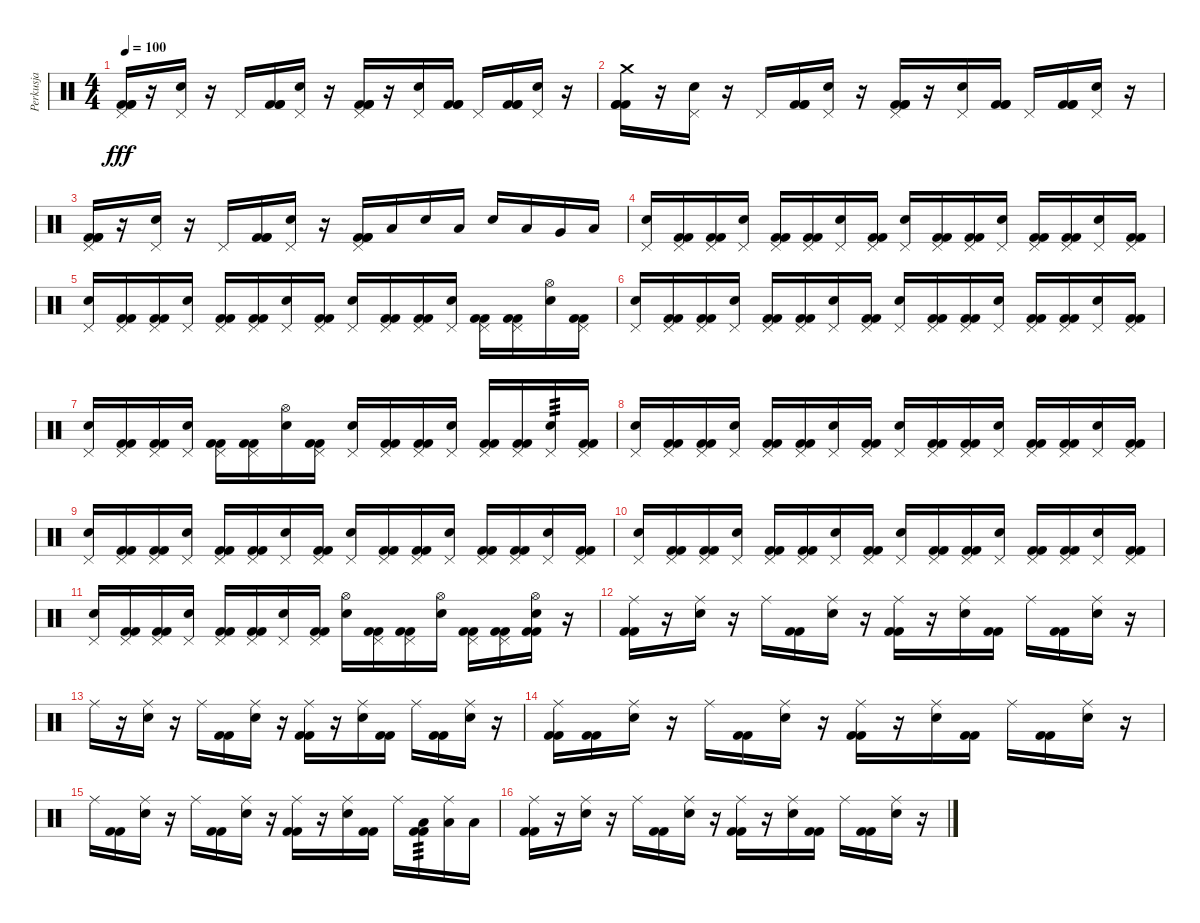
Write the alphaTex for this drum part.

\track ("Perkusja" "Perkusja") {instrument percussion}
\staff {score}
\articulation defaults
\ts (4 4)
\tempo 100
\clef neutral
\ks c
("Pedal Hi-Hat (hit)" "Kick (hit) 2" "Kick (hit) 2" "Kick (hit) 2").16{dy fff} r.16 ("Snare (hit) 2" "Pedal Hi-Hat (hit)").16 r.16 "Pedal Hi-Hat (hit)".16 ("Kick (hit) 2" "Kick (hit) 2" "Kick (hit) 2").16 ("Snare (hit) 2" "Pedal Hi-Hat (hit)").16 r.16 ("Pedal Hi-Hat (hit)" "Kick (hit) 2" "Kick (hit) 2" "Kick (hit) 2").16 r.16 ("Snare (hit) 2" "Pedal Hi-Hat (hit)").16 ("Kick (hit) 2" "Kick (hit) 2" "Kick (hit) 2").16 "Pedal Hi-Hat (hit)".16 ("Kick (hit) 2" "Kick (hit) 2" "Kick (hit) 2").16 ("Snare (hit) 2" "Pedal Hi-Hat (hit)").16 r.16 |
("Crash medium (hit)" "Kick (hit) 2" "Kick (hit) 2" "Kick (hit) 2").16 r.16 ("Snare (hit) 2" "Pedal Hi-Hat (hit)").16 r.16 "Pedal Hi-Hat (hit)".16 ("Kick (hit) 2" "Kick (hit) 2" "Kick (hit) 2").16 ("Snare (hit) 2" "Pedal Hi-Hat (hit)").16 r.16 ("Pedal Hi-Hat (hit)" "Kick (hit) 2" "Kick (hit) 2" "Kick (hit) 2").16 r.16 ("Snare (hit) 2" "Pedal Hi-Hat (hit)").16 ("Kick (hit) 2" "Kick (hit) 2" "Kick (hit) 2").16 "Pedal Hi-Hat (hit)".16 ("Kick (hit) 2" "Kick (hit) 2" "Kick (hit) 2").16 ("Snare (hit) 2" "Pedal Hi-Hat (hit)").16 r.16 |
("Pedal Hi-Hat (hit)" "Kick (hit) 2" "Kick (hit) 2" "Kick (hit) 2").16 r.16 ("Snare (hit) 2" "Pedal Hi-Hat (hit)").16 r.16 "Pedal Hi-Hat (hit)".16 ("Kick (hit) 2" "Kick (hit) 2" "Kick (hit) 2").16 ("Snare (hit) 2" "Pedal Hi-Hat (hit)").16 r.16 ("Pedal Hi-Hat (hit)" "Kick (hit) 2" "Kick (hit) 2" "Kick (hit) 2").16 "Low Tom (hit)".16 "Snare (hit) 2".16 "Low Tom (hit)".16 "Snare (hit) 2".16 "Low Tom (hit)".16 "Very Low Tom (hit)".16 "Low Floor Tom (hit)".16 |
("Snare (hit) 2" "Pedal Hi-Hat (hit)").16 ("Pedal Hi-Hat (hit)" "Kick (hit) 2" "Kick (hit) 2").16 ("Pedal Hi-Hat (hit)" "Kick (hit) 2" "Kick (hit) 2").16 ("Snare (hit) 2" "Pedal Hi-Hat (hit)").16 ("Pedal Hi-Hat (hit)" "Kick (hit) 2" "Kick (hit) 2").16 ("Pedal Hi-Hat (hit)" "Kick (hit) 2" "Kick (hit) 2").16 ("Snare (hit) 2" "Pedal Hi-Hat (hit)").16 ("Pedal Hi-Hat (hit)" "Kick (hit) 2" "Kick (hit) 2").16 ("Snare (hit) 2" "Pedal Hi-Hat (hit)").16 ("Pedal Hi-Hat (hit)" "Kick (hit) 2" "Kick (hit) 2").16 ("Pedal Hi-Hat (hit)" "Kick (hit) 2" "Kick (hit) 2").16 ("Snare (hit) 2" "Pedal Hi-Hat (hit)").16 ("Pedal Hi-Hat (hit)" "Kick (hit) 2" "Kick (hit) 2").16 ("Pedal Hi-Hat (hit)" "Kick (hit) 2" "Kick (hit) 2").16 ("Snare (hit) 2" "Pedal Hi-Hat (hit)").16 ("Pedal Hi-Hat (hit)" "Kick (hit) 2" "Kick (hit) 2").16 |
("Snare (hit) 2" "Pedal Hi-Hat (hit)").16 ("Pedal Hi-Hat (hit)" "Kick (hit) 2" "Kick (hit) 2").16 ("Pedal Hi-Hat (hit)" "Kick (hit) 2" "Kick (hit) 2").16 ("Snare (hit) 2" "Pedal Hi-Hat (hit)").16 ("Pedal Hi-Hat (hit)" "Kick (hit) 2" "Kick (hit) 2").16 ("Pedal Hi-Hat (hit)" "Kick (hit) 2" "Kick (hit) 2").16 ("Snare (hit) 2" "Pedal Hi-Hat (hit)").16 ("Pedal Hi-Hat (hit)" "Kick (hit) 2" "Kick (hit) 2").16 ("Snare (hit) 2" "Pedal Hi-Hat (hit)").16 ("Pedal Hi-Hat (hit)" "Kick (hit) 2" "Kick (hit) 2").16 ("Pedal Hi-Hat (hit)" "Kick (hit) 2" "Kick (hit) 2").16 ("Snare (hit) 2" "Pedal Hi-Hat (hit)").16 ("Pedal Hi-Hat (hit)" "Kick (hit) 2" "Kick (hit) 2").16 ("Pedal Hi-Hat (hit)" "Kick (hit) 2" "Kick (hit) 2").16 ("Snare (hit) 2" "Hi-Hat (open)").16 ("Pedal Hi-Hat (hit)" "Kick (hit) 2" "Kick (hit) 2").16 |
("Snare (hit) 2" "Pedal Hi-Hat (hit)").16 ("Pedal Hi-Hat (hit)" "Kick (hit) 2" "Kick (hit) 2").16 ("Pedal Hi-Hat (hit)" "Kick (hit) 2" "Kick (hit) 2").16 ("Snare (hit) 2" "Pedal Hi-Hat (hit)").16 ("Pedal Hi-Hat (hit)" "Kick (hit) 2" "Kick (hit) 2").16 ("Pedal Hi-Hat (hit)" "Kick (hit) 2" "Kick (hit) 2").16 ("Snare (hit) 2" "Pedal Hi-Hat (hit)").16 ("Pedal Hi-Hat (hit)" "Kick (hit) 2" "Kick (hit) 2").16 ("Snare (hit) 2" "Pedal Hi-Hat (hit)").16 ("Pedal Hi-Hat (hit)" "Kick (hit) 2" "Kick (hit) 2").16 ("Pedal Hi-Hat (hit)" "Kick (hit) 2" "Kick (hit) 2").16 ("Snare (hit) 2" "Pedal Hi-Hat (hit)").16 ("Pedal Hi-Hat (hit)" "Kick (hit) 2" "Kick (hit) 2").16 ("Pedal Hi-Hat (hit)" "Kick (hit) 2" "Kick (hit) 2").16 ("Snare (hit) 2" "Pedal Hi-Hat (hit)").16 ("Pedal Hi-Hat (hit)" "Kick (hit) 2" "Kick (hit) 2").16 |
("Snare (hit) 2" "Pedal Hi-Hat (hit)").16 ("Pedal Hi-Hat (hit)" "Kick (hit) 2" "Kick (hit) 2").16 ("Pedal Hi-Hat (hit)" "Kick (hit) 2" "Kick (hit) 2").16 ("Snare (hit) 2" "Pedal Hi-Hat (hit)").16 ("Pedal Hi-Hat (hit)" "Kick (hit) 2" "Kick (hit) 2").16 ("Pedal Hi-Hat (hit)" "Kick (hit) 2" "Kick (hit) 2").16 ("Snare (hit) 2" "Hi-Hat (open)").16 ("Pedal Hi-Hat (hit)" "Kick (hit) 2" "Kick (hit) 2").16 ("Snare (hit) 2" "Pedal Hi-Hat (hit)").16 ("Pedal Hi-Hat (hit)" "Kick (hit) 2" "Kick (hit) 2").16 ("Pedal Hi-Hat (hit)" "Kick (hit) 2" "Kick (hit) 2").16 ("Snare (hit) 2" "Pedal Hi-Hat (hit)").16 ("Pedal Hi-Hat (hit)" "Kick (hit) 2" "Kick (hit) 2").16 ("Pedal Hi-Hat (hit)" "Kick (hit) 2" "Kick (hit) 2").16 ("Snare (hit) 2" "Pedal Hi-Hat (hit)").16{tp 3} ("Pedal Hi-Hat (hit)" "Kick (hit) 2" "Kick (hit) 2").16 |
("Snare (hit) 2" "Pedal Hi-Hat (hit)").16 ("Pedal Hi-Hat (hit)" "Kick (hit) 2" "Kick (hit) 2").16 ("Pedal Hi-Hat (hit)" "Kick (hit) 2" "Kick (hit) 2").16 ("Snare (hit) 2" "Pedal Hi-Hat (hit)").16 ("Pedal Hi-Hat (hit)" "Kick (hit) 2" "Kick (hit) 2").16 ("Pedal Hi-Hat (hit)" "Kick (hit) 2" "Kick (hit) 2").16 ("Snare (hit) 2" "Pedal Hi-Hat (hit)").16 ("Pedal Hi-Hat (hit)" "Kick (hit) 2" "Kick (hit) 2").16 ("Snare (hit) 2" "Pedal Hi-Hat (hit)").16 ("Pedal Hi-Hat (hit)" "Kick (hit) 2" "Kick (hit) 2").16 ("Pedal Hi-Hat (hit)" "Kick (hit) 2" "Kick (hit) 2").16 ("Snare (hit) 2" "Pedal Hi-Hat (hit)").16 ("Pedal Hi-Hat (hit)" "Kick (hit) 2" "Kick (hit) 2").16 ("Pedal Hi-Hat (hit)" "Kick (hit) 2" "Kick (hit) 2").16 ("Snare (hit) 2" "Pedal Hi-Hat (hit)").16 ("Pedal Hi-Hat (hit)" "Kick (hit) 2" "Kick (hit) 2").16 |
("Snare (hit) 2" "Pedal Hi-Hat (hit)").16 ("Pedal Hi-Hat (hit)" "Kick (hit) 2" "Kick (hit) 2").16 ("Pedal Hi-Hat (hit)" "Kick (hit) 2" "Kick (hit) 2").16 ("Snare (hit) 2" "Pedal Hi-Hat (hit)").16 ("Pedal Hi-Hat (hit)" "Kick (hit) 2" "Kick (hit) 2").16 ("Pedal Hi-Hat (hit)" "Kick (hit) 2" "Kick (hit) 2").16 ("Snare (hit) 2" "Pedal Hi-Hat (hit)").16 ("Pedal Hi-Hat (hit)" "Kick (hit) 2" "Kick (hit) 2").16 ("Snare (hit) 2" "Pedal Hi-Hat (hit)").16 ("Pedal Hi-Hat (hit)" "Kick (hit) 2" "Kick (hit) 2").16 ("Pedal Hi-Hat (hit)" "Kick (hit) 2" "Kick (hit) 2").16 ("Snare (hit) 2" "Pedal Hi-Hat (hit)").16 ("Pedal Hi-Hat (hit)" "Kick (hit) 2" "Kick (hit) 2").16 ("Pedal Hi-Hat (hit)" "Kick (hit) 2" "Kick (hit) 2").16 ("Snare (hit) 2" "Pedal Hi-Hat (hit)").16 ("Pedal Hi-Hat (hit)" "Kick (hit) 2" "Kick (hit) 2").16 |
("Snare (hit) 2" "Pedal Hi-Hat (hit)").16 ("Pedal Hi-Hat (hit)" "Kick (hit) 2" "Kick (hit) 2").16 ("Pedal Hi-Hat (hit)" "Kick (hit) 2" "Kick (hit) 2").16 ("Snare (hit) 2" "Pedal Hi-Hat (hit)").16 ("Pedal Hi-Hat (hit)" "Kick (hit) 2" "Kick (hit) 2").16 ("Pedal Hi-Hat (hit)" "Kick (hit) 2" "Kick (hit) 2").16 ("Snare (hit) 2" "Pedal Hi-Hat (hit)").16 ("Pedal Hi-Hat (hit)" "Kick (hit) 2" "Kick (hit) 2").16 ("Snare (hit) 2" "Pedal Hi-Hat (hit)").16 ("Pedal Hi-Hat (hit)" "Kick (hit) 2" "Kick (hit) 2").16 ("Pedal Hi-Hat (hit)" "Kick (hit) 2" "Kick (hit) 2").16 ("Snare (hit) 2" "Pedal Hi-Hat (hit)").16 ("Pedal Hi-Hat (hit)" "Kick (hit) 2" "Kick (hit) 2").16 ("Pedal Hi-Hat (hit)" "Kick (hit) 2" "Kick (hit) 2").16 ("Snare (hit) 2" "Pedal Hi-Hat (hit)").16 ("Pedal Hi-Hat (hit)" "Kick (hit) 2" "Kick (hit) 2").16 |
("Snare (hit) 2" "Pedal Hi-Hat (hit)").16 ("Pedal Hi-Hat (hit)" "Kick (hit) 2" "Kick (hit) 2").16 ("Pedal Hi-Hat (hit)" "Kick (hit) 2" "Kick (hit) 2").16 ("Snare (hit) 2" "Pedal Hi-Hat (hit)").16 ("Pedal Hi-Hat (hit)" "Kick (hit) 2" "Kick (hit) 2").16 ("Pedal Hi-Hat (hit)" "Kick (hit) 2" "Kick (hit) 2").16 ("Snare (hit) 2" "Pedal Hi-Hat (hit)").16 ("Pedal Hi-Hat (hit)" "Kick (hit) 2" "Kick (hit) 2").16 ("Snare (hit) 2" "Hi-Hat (open)").16 ("Pedal Hi-Hat (hit)" "Kick (hit) 2" "Kick (hit) 2").16 ("Pedal Hi-Hat (hit)" "Kick (hit) 2" "Kick (hit) 2").16 ("Snare (hit) 2" "Hi-Hat (open)").16 ("Pedal Hi-Hat (hit)" "Kick (hit) 2" "Kick (hit) 2").16 ("Pedal Hi-Hat (hit)" "Kick (hit) 2" "Kick (hit) 2").16 ("Snare (hit) 2" "Hi-Hat (open)" "Kick (hit) 2" "Kick (hit) 2").16 r.16 |
("Ride (middle)" "Kick (hit) 2" "Kick (hit) 2").16 r.16 ("Snare (hit) 2" "Ride (middle)").16 r.16 "Ride (middle)".16 ("Kick (hit) 2" "Kick (hit) 2").16 ("Snare (hit) 2" "Ride (middle)").16 r.16 ("Ride (middle)" "Kick (hit) 2" "Kick (hit) 2").16 r.16 ("Snare (hit) 2" "Ride (middle)").16 ("Kick (hit) 2" "Kick (hit) 2").16 "Ride (middle)".16 ("Kick (hit) 2" "Kick (hit) 2").16 ("Snare (hit) 2" "Ride (middle)").16 r.16 |
"Ride (middle)".16 r.16 ("Snare (hit) 2" "Ride (middle)").16 r.16 "Ride (middle)".16 ("Kick (hit) 2" "Kick (hit) 2").16 ("Snare (hit) 2" "Ride (middle)").16 r.16 ("Ride (middle)" "Kick (hit) 2" "Kick (hit) 2").16 r.16 ("Snare (hit) 2" "Ride (middle)").16 ("Kick (hit) 2" "Kick (hit) 2").16 "Ride (middle)".16 ("Kick (hit) 2" "Kick (hit) 2").16 ("Snare (hit) 2" "Ride (middle)").16 r.16 |
("Ride (middle)" "Kick (hit) 2" "Kick (hit) 2").16 ("Kick (hit) 2" "Kick (hit) 2").16 ("Snare (hit) 2" "Ride (middle)").16 r.16 "Ride (middle)".16 ("Kick (hit) 2" "Kick (hit) 2").16 ("Snare (hit) 2" "Ride (middle)").16 r.16 ("Ride (middle)" "Kick (hit) 2" "Kick (hit) 2").16 r.16 ("Snare (hit) 2" "Ride (middle)").16 ("Kick (hit) 2" "Kick (hit) 2").16 "Ride (middle)".16 ("Kick (hit) 2" "Kick (hit) 2").16 ("Snare (hit) 2" "Ride (middle)").16 r.16 |
"Ride (middle)".16 ("Kick (hit) 2" "Kick (hit) 2").16 ("Snare (hit) 2" "Ride (middle)").16 r.16 "Ride (middle)".16 ("Kick (hit) 2" "Kick (hit) 2").16 ("Snare (hit) 2" "Ride (middle)").16 r.16 ("Ride (middle)" "Kick (hit) 2" "Kick (hit) 2").16 r.16 ("Snare (hit) 2" "Ride (middle)").16 ("Kick (hit) 2" "Kick (hit) 2").16 "Ride (middle)".16 ("Low Tom (hit)" "Kick (hit) 2" "Kick (hit) 2").16{tp 3} ("Low Tom (hit)" "Ride (middle)").16 "Low Tom (hit)".16 |
("Ride (middle)" "Kick (hit) 2" "Kick (hit) 2").16 r.16 ("Snare (hit) 2" "Ride (middle)").16 r.16 "Ride (middle)".16 ("Kick (hit) 2" "Kick (hit) 2").16 ("Snare (hit) 2" "Ride (middle)").16 r.16 ("Ride (middle)" "Kick (hit) 2" "Kick (hit) 2").16 r.16 ("Snare (hit) 2" "Ride (middle)").16 ("Kick (hit) 2" "Kick (hit) 2").16 "Ride (middle)".16 ("Kick (hit) 2" "Kick (hit) 2").16 ("Snare (hit) 2" "Ride (middle)").16 r.16
